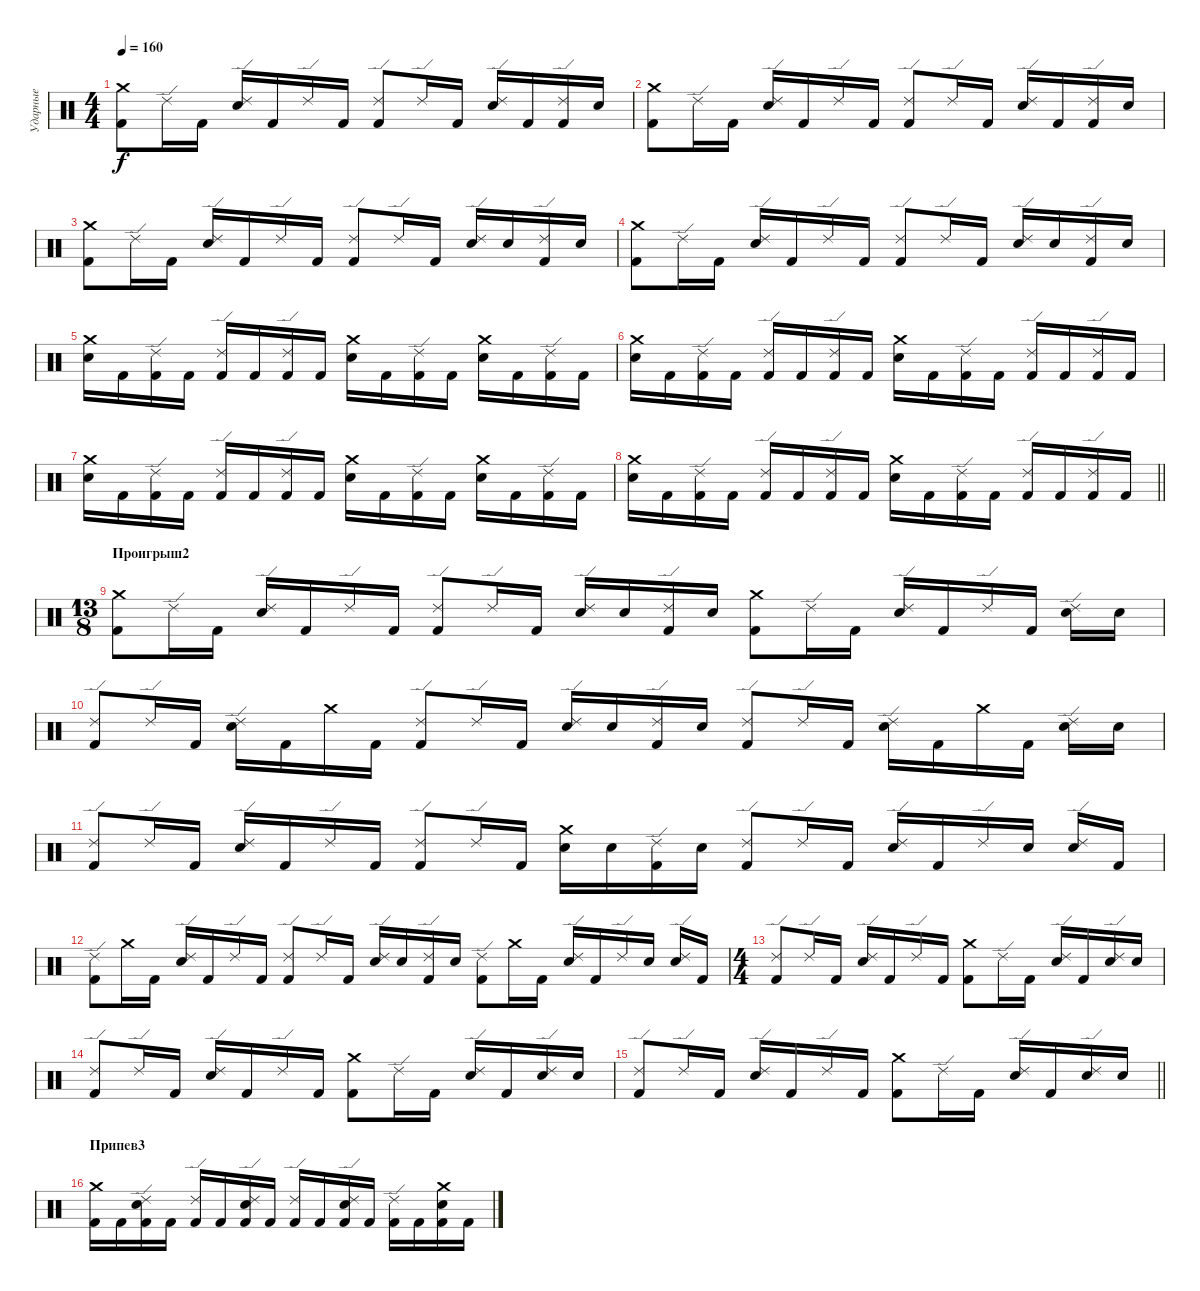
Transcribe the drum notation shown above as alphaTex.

\track ("Ударные" "Ударные") {instrument percussion}
\staff {score}
\articulation defaults
\ts (4 4)
\tempo 160
\clef neutral
\ks c
("Crash medium (hit)" "Kick (hit) 2").8{dy f} "Ride (edge) 2".16 "Kick (hit) 2".16 ("Ride (edge) 2" "Electric Snare (hit)").16 "Kick (hit) 2".16 "Ride (edge) 2".16 "Kick (hit) 2".16 ("Ride (edge) 2" "Kick (hit) 2").8 "Ride (edge) 2".16 "Kick (hit) 2".16 ("Ride (edge) 2" "Electric Snare (hit)").16 "Kick (hit) 2".16 ("Ride (edge) 2" "Kick (hit) 2").16 "Electric Snare (hit)".16 |
("Crash medium (hit)" "Kick (hit) 2").8 "Ride (edge) 2".16 "Kick (hit) 2".16 ("Ride (edge) 2" "Electric Snare (hit)").16 "Kick (hit) 2".16 "Ride (edge) 2".16 "Kick (hit) 2".16 ("Ride (edge) 2" "Kick (hit) 2").8 "Ride (edge) 2".16 "Kick (hit) 2".16 ("Ride (edge) 2" "Electric Snare (hit)").16 "Kick (hit) 2".16 ("Ride (edge) 2" "Kick (hit) 2").16 "Electric Snare (hit)".16 |
("Crash medium (hit)" "Kick (hit) 2").8 "Ride (edge) 2".16 "Kick (hit) 2".16 ("Ride (edge) 2" "Electric Snare (hit)").16 "Kick (hit) 2".16 "Ride (edge) 2".16 "Kick (hit) 2".16 ("Ride (edge) 2" "Kick (hit) 2").8 "Ride (edge) 2".16 "Kick (hit) 2".16 ("Ride (edge) 2" "Electric Snare (hit)").16 "Electric Snare (hit)".16 ("Ride (edge) 2" "Kick (hit) 2").16 "Electric Snare (hit)".16 |
("Crash medium (hit)" "Kick (hit) 2").8 "Ride (edge) 2".16 "Kick (hit) 2".16 ("Ride (edge) 2" "Electric Snare (hit)").16 "Kick (hit) 2".16 "Ride (edge) 2".16 "Kick (hit) 2".16 ("Ride (edge) 2" "Kick (hit) 2").8 "Ride (edge) 2".16 "Kick (hit) 2".16 ("Ride (edge) 2" "Electric Snare (hit)").16 "Electric Snare (hit)".16 ("Ride (edge) 2" "Kick (hit) 2").16 "Electric Snare (hit)".16 |
("Crash medium (hit)" "Electric Snare (hit)").16 "Kick (hit) 2".16 ("Ride (edge) 2" "Kick (hit) 2").16 "Kick (hit) 2".16 ("Ride (edge) 2" "Kick (hit) 2").16 "Kick (hit) 2".16 ("Ride (edge) 2" "Kick (hit) 2").16 "Kick (hit) 2".16 ("Crash medium (hit)" "Electric Snare (hit)").16 "Kick (hit) 2".16 ("Ride (edge) 2" "Kick (hit) 2").16 "Kick (hit) 2".16 ("Crash medium (hit)" "Electric Snare (hit)").16 "Kick (hit) 2".16 ("Ride (edge) 2" "Kick (hit) 2").16 "Kick (hit) 2".16 |
("Crash medium (hit)" "Electric Snare (hit)").16 "Kick (hit) 2".16 ("Ride (edge) 2" "Kick (hit) 2").16 "Kick (hit) 2".16 ("Ride (edge) 2" "Kick (hit) 2").16 "Kick (hit) 2".16 ("Ride (edge) 2" "Kick (hit) 2").16 "Kick (hit) 2".16 ("Crash medium (hit)" "Electric Snare (hit)").16 "Kick (hit) 2".16 ("Ride (edge) 2" "Kick (hit) 2").16 "Kick (hit) 2".16 ("Ride (edge) 2" "Kick (hit) 2").16 "Kick (hit) 2".16 ("Ride (edge) 2" "Kick (hit) 2").16 "Kick (hit) 2".16 |
("Crash medium (hit)" "Electric Snare (hit)").16 "Kick (hit) 2".16 ("Ride (edge) 2" "Kick (hit) 2").16 "Kick (hit) 2".16 ("Ride (edge) 2" "Kick (hit) 2").16 "Kick (hit) 2".16 ("Ride (edge) 2" "Kick (hit) 2").16 "Kick (hit) 2".16 ("Crash medium (hit)" "Electric Snare (hit)").16 "Kick (hit) 2".16 ("Ride (edge) 2" "Kick (hit) 2").16 "Kick (hit) 2".16 ("Crash medium (hit)" "Electric Snare (hit)").16 "Kick (hit) 2".16 ("Ride (edge) 2" "Kick (hit) 2").16 "Kick (hit) 2".16 |
\barLineRight lightlight
("Crash medium (hit)" "Electric Snare (hit)").16 "Kick (hit) 2".16 ("Ride (edge) 2" "Kick (hit) 2").16 "Kick (hit) 2".16 ("Ride (edge) 2" "Kick (hit) 2").16 "Kick (hit) 2".16 ("Ride (edge) 2" "Kick (hit) 2").16 "Kick (hit) 2".16 ("Crash medium (hit)" "Electric Snare (hit)").16 "Kick (hit) 2".16 ("Ride (edge) 2" "Kick (hit) 2").16 "Kick (hit) 2".16 ("Ride (edge) 2" "Kick (hit) 2").16 "Kick (hit) 2".16 ("Ride (edge) 2" "Kick (hit) 2").16 "Kick (hit) 2".16 |
\ts (13 8)
\section ("" "Проигрыш2")
("Crash medium (hit)" "Kick (hit) 2").8 "Ride (edge) 2".16 "Kick (hit) 2".16 ("Ride (edge) 2" "Electric Snare (hit)").16 "Kick (hit) 2".16 "Ride (edge) 2".16 "Kick (hit) 2".16 ("Ride (edge) 2" "Kick (hit) 2").8 "Ride (edge) 2".16 "Kick (hit) 2".16 ("Ride (edge) 2" "Electric Snare (hit)").16 "Electric Snare (hit)".16 ("Ride (edge) 2" "Kick (hit) 2").16 "Electric Snare (hit)".16 ("Crash medium (hit)" "Kick (hit) 2").8 "Ride (edge) 2".16 "Kick (hit) 2".16 ("Ride (edge) 2" "Electric Snare (hit)").16 "Kick (hit) 2".16 "Ride (edge) 2".16 "Kick (hit) 2".16 ("Electric Snare (hit)" "Ride (edge) 2").16 "Electric Snare (hit)".16 |
("Ride (edge) 2" "Kick (hit) 2").8 "Ride (edge) 2".16 "Kick (hit) 2".16 ("Ride (edge) 2" "Electric Snare (hit)").16 "Kick (hit) 2".16 "Crash medium (hit)".16 "Kick (hit) 2".16 ("Ride (edge) 2" "Kick (hit) 2").8 "Ride (edge) 2".16 "Kick (hit) 2".16 ("Ride (edge) 2" "Electric Snare (hit)").16 "Electric Snare (hit)".16 ("Ride (edge) 2" "Kick (hit) 2").16 "Electric Snare (hit)".16 ("Ride (edge) 2" "Kick (hit) 2").8 "Ride (edge) 2".16 "Kick (hit) 2".16 ("Ride (edge) 2" "Electric Snare (hit)").16 "Kick (hit) 2".16 "Crash medium (hit)".16 "Kick (hit) 2".16 ("Electric Snare (hit)" "Ride (edge) 2").16 "Electric Snare (hit)".16 |
("Ride (edge) 2" "Kick (hit) 2").8 "Ride (edge) 2".16 "Kick (hit) 2".16 ("Ride (edge) 2" "Electric Snare (hit)").16 "Kick (hit) 2".16 "Ride (edge) 2".16 "Kick (hit) 2".16 ("Ride (edge) 2" "Kick (hit) 2").8 "Ride (edge) 2".16 "Kick (hit) 2".16 ("Crash medium (hit)" "Electric Snare (hit)").16 "Electric Snare (hit)".16 ("Ride (edge) 2" "Kick (hit) 2").16 "Electric Snare (hit)".16 ("Ride (edge) 2" "Kick (hit) 2").8 "Ride (edge) 2".16 "Kick (hit) 2".16 ("Ride (edge) 2" "Electric Snare (hit)").16 "Kick (hit) 2".16 "Ride (edge) 2".16 "Electric Snare (hit)".16 ("Electric Snare (hit)" "Ride (edge) 2").16 "Kick (hit) 2".16 |
("Ride (edge) 2" "Kick (hit) 2").8 "Crash medium (hit)".16 "Kick (hit) 2".16 ("Ride (edge) 2" "Electric Snare (hit)").16 "Kick (hit) 2".16 "Ride (edge) 2".16 "Kick (hit) 2".16 ("Ride (edge) 2" "Kick (hit) 2").8 "Ride (edge) 2".16 "Kick (hit) 2".16 ("Ride (edge) 2" "Electric Snare (hit)").16 "Electric Snare (hit)".16 ("Ride (edge) 2" "Kick (hit) 2").16 "Electric Snare (hit)".16 ("Ride (edge) 2" "Kick (hit) 2").8 "Crash medium (hit)".16 "Kick (hit) 2".16 ("Ride (edge) 2" "Electric Snare (hit)").16 "Kick (hit) 2".16 "Ride (edge) 2".16 "Electric Snare (hit)".16 ("Electric Snare (hit)" "Ride (edge) 2").16 "Kick (hit) 2".16 |
\ts (4 4)
("Ride (edge) 2" "Kick (hit) 2").8 "Ride (edge) 2".16 "Kick (hit) 2".16 ("Ride (edge) 2" "Electric Snare (hit)").16 "Kick (hit) 2".16 "Ride (edge) 2".16 "Kick (hit) 2".16 ("Crash medium (hit)" "Kick (hit) 2").8 "Ride (edge) 2".16 "Kick (hit) 2".16 ("Ride (edge) 2" "Electric Snare (hit)").16 "Kick (hit) 2".16 ("Ride (edge) 2" "Electric Snare (hit)").16 "Electric Snare (hit)".16 |
("Ride (edge) 2" "Kick (hit) 2").8 "Ride (edge) 2".16 "Kick (hit) 2".16 ("Ride (edge) 2" "Electric Snare (hit)").16 "Kick (hit) 2".16 "Ride (edge) 2".16 "Kick (hit) 2".16 ("Crash medium (hit)" "Kick (hit) 2").8 "Ride (edge) 2".16 "Kick (hit) 2".16 ("Ride (edge) 2" "Electric Snare (hit)").16 "Kick (hit) 2".16 ("Ride (edge) 2" "Electric Snare (hit)").16 "Electric Snare (hit)".16 |
\barLineRight lightlight
("Ride (edge) 2" "Kick (hit) 2").8 "Ride (edge) 2".16 "Kick (hit) 2".16 ("Ride (edge) 2" "Electric Snare (hit)").16 "Kick (hit) 2".16 "Ride (edge) 2".16 "Kick (hit) 2".16 ("Crash medium (hit)" "Kick (hit) 2").8 "Ride (edge) 2".16 "Kick (hit) 2".16 ("Ride (edge) 2" "Electric Snare (hit)").16 "Kick (hit) 2".16 ("Ride (edge) 2" "Electric Snare (hit)").16 "Electric Snare (hit)".16 |
\section ("" "Припев3")
("Crash medium (hit)" "Kick (hit) 2").16 "Kick (hit) 2".16 ("Ride (edge) 2" "Kick (hit) 2" "Electric Snare (hit)").16 "Kick (hit) 2".16 ("Ride (edge) 2" "Kick (hit) 2").16 "Kick (hit) 2".16 ("Ride (edge) 2" "Kick (hit) 2" "Electric Snare (hit)").16 "Kick (hit) 2".16 ("Ride (edge) 2" "Kick (hit) 2").16 "Kick (hit) 2".16 ("Ride (edge) 2" "Kick (hit) 2" "Electric Snare (hit)").16 "Kick (hit) 2".16 ("Ride (edge) 2" "Kick (hit) 2").16 "Kick (hit) 2".16 ("Crash medium (hit)" "Kick (hit) 2" "Electric Snare (hit)").16 "Kick (hit) 2".16
